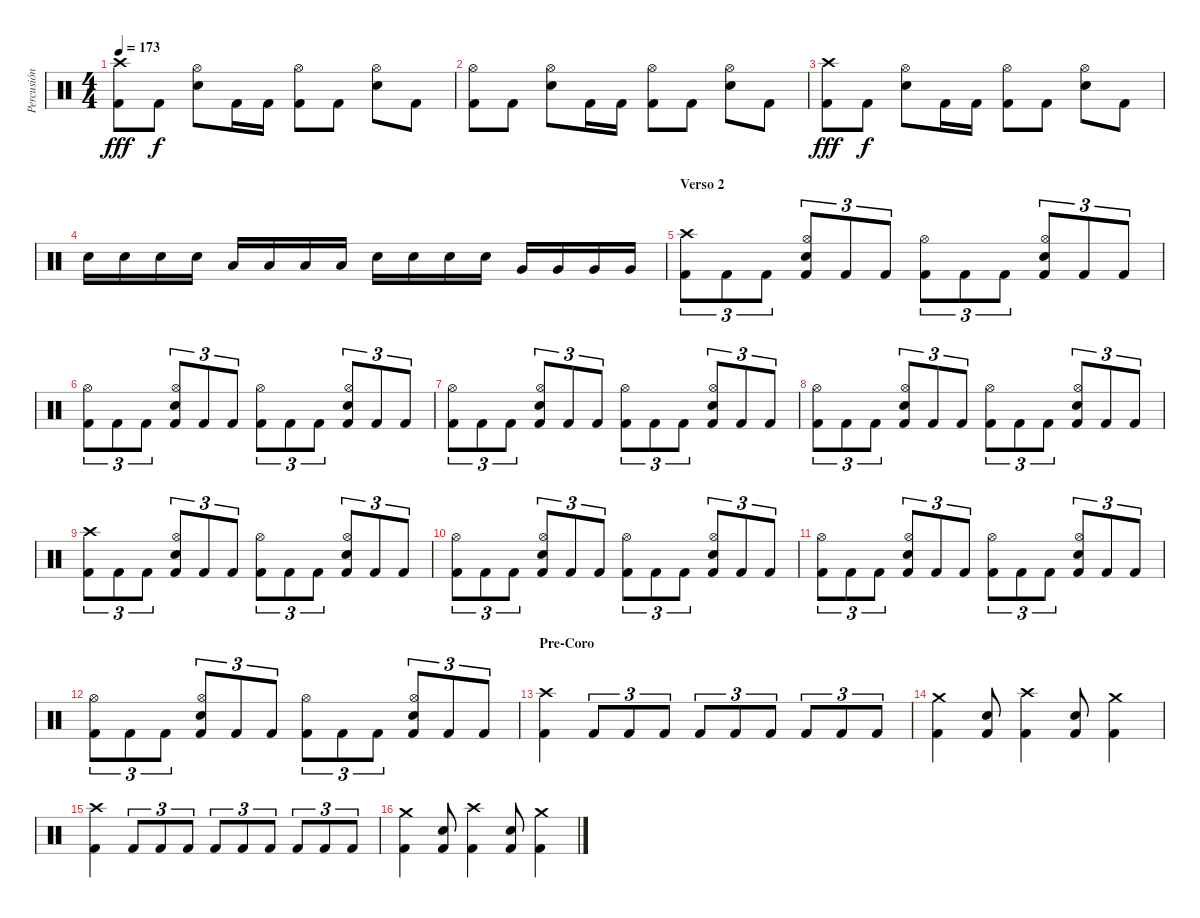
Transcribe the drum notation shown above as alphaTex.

\track ("Percusión" "Percusión") {instrument percussion}
\staff {score}
\articulation defaults
\ts (4 4)
\tempo 173
\clef neutral
\ks c
("Crash high (hit)" "Kick (hit) 2").8{dy fff} "Kick (hit) 2".8{dy f} ("Hi-Hat (open)" "Snare (hit) 2").8 "Kick (hit) 2".16 "Kick (hit) 2".16 ("Hi-Hat (open)" "Kick (hit) 2").8 "Kick (hit) 2".8 ("Hi-Hat (open)" "Snare (hit) 2").8 "Kick (hit) 2".8 |
("Hi-Hat (open)" "Kick (hit) 2").8 "Kick (hit) 2".8 ("Hi-Hat (open)" "Snare (hit) 2").8 "Kick (hit) 2".16 "Kick (hit) 2".16 ("Hi-Hat (open)" "Kick (hit) 2").8 "Kick (hit) 2".8 ("Hi-Hat (open)" "Snare (hit) 2").8 "Kick (hit) 2".8 |
("Crash high (hit)" "Kick (hit) 2").8{dy fff} "Kick (hit) 2".8{dy f} ("Hi-Hat (open)" "Snare (hit) 2").8 "Kick (hit) 2".16 "Kick (hit) 2".16 ("Hi-Hat (open)" "Kick (hit) 2").8 "Kick (hit) 2".8 ("Hi-Hat (open)" "Snare (hit) 2").8 "Kick (hit) 2".8 |
"Snare (hit) 2".16 "Snare (hit) 2".16 "Snare (hit) 2".16 "Snare (hit) 2".16 "Low Tom (hit)".16 "Low Tom (hit)".16 "Low Tom (hit)".16 "Low Tom (hit)".16 "Snare (hit) 2".16 "Snare (hit) 2".16 "Snare (hit) 2".16 "Snare (hit) 2".16 "Very Low Tom (hit)".16 "Very Low Tom (hit)".16 "Very Low Tom (hit)".16 "Very Low Tom (hit)".16 |
\section ("" "Verso 2")
("Crash high (hit)" "Kick (hit) 2").8{tu (3 2)} "Kick (hit) 2".8{tu (3 2)} "Kick (hit) 2".8{tu (3 2)} ("Hi-Hat (open)" "Snare (hit) 2" "Kick (hit) 2").8{tu (3 2)} "Kick (hit) 2".8{tu (3 2)} "Kick (hit) 2".8{tu (3 2)} ("Hi-Hat (open)" "Kick (hit) 2").8{tu (3 2)} "Kick (hit) 2".8{tu (3 2)} "Kick (hit) 2".8{tu (3 2)} ("Hi-Hat (open)" "Snare (hit) 2" "Kick (hit) 2").8{tu (3 2)} "Kick (hit) 2".8{tu (3 2)} "Kick (hit) 2".8{tu (3 2)} |
("Hi-Hat (open)" "Kick (hit) 2").8{tu (3 2)} "Kick (hit) 2".8{tu (3 2)} "Kick (hit) 2".8{tu (3 2)} ("Hi-Hat (open)" "Snare (hit) 2" "Kick (hit) 2").8{tu (3 2)} "Kick (hit) 2".8{tu (3 2)} "Kick (hit) 2".8{tu (3 2)} ("Hi-Hat (open)" "Kick (hit) 2").8{tu (3 2)} "Kick (hit) 2".8{tu (3 2)} "Kick (hit) 2".8{tu (3 2)} ("Hi-Hat (open)" "Snare (hit) 2" "Kick (hit) 2").8{tu (3 2)} "Kick (hit) 2".8{tu (3 2)} "Kick (hit) 2".8{tu (3 2)} |
("Hi-Hat (open)" "Kick (hit) 2").8{tu (3 2)} "Kick (hit) 2".8{tu (3 2)} "Kick (hit) 2".8{tu (3 2)} ("Hi-Hat (open)" "Snare (hit) 2" "Kick (hit) 2").8{tu (3 2)} "Kick (hit) 2".8{tu (3 2)} "Kick (hit) 2".8{tu (3 2)} ("Hi-Hat (open)" "Kick (hit) 2").8{tu (3 2)} "Kick (hit) 2".8{tu (3 2)} "Kick (hit) 2".8{tu (3 2)} ("Hi-Hat (open)" "Snare (hit) 2" "Kick (hit) 2").8{tu (3 2)} "Kick (hit) 2".8{tu (3 2)} "Kick (hit) 2".8{tu (3 2)} |
("Hi-Hat (open)" "Kick (hit) 2").8{tu (3 2)} "Kick (hit) 2".8{tu (3 2)} "Kick (hit) 2".8{tu (3 2)} ("Hi-Hat (open)" "Snare (hit) 2" "Kick (hit) 2").8{tu (3 2)} "Kick (hit) 2".8{tu (3 2)} "Kick (hit) 2".8{tu (3 2)} ("Hi-Hat (open)" "Kick (hit) 2").8{tu (3 2)} "Kick (hit) 2".8{tu (3 2)} "Kick (hit) 2".8{tu (3 2)} ("Hi-Hat (open)" "Snare (hit) 2" "Kick (hit) 2").8{tu (3 2)} "Kick (hit) 2".8{tu (3 2)} "Kick (hit) 2".8{tu (3 2)} |
("Crash high (hit)" "Kick (hit) 2").8{tu (3 2)} "Kick (hit) 2".8{tu (3 2)} "Kick (hit) 2".8{tu (3 2)} ("Hi-Hat (open)" "Snare (hit) 2" "Kick (hit) 2").8{tu (3 2)} "Kick (hit) 2".8{tu (3 2)} "Kick (hit) 2".8{tu (3 2)} ("Hi-Hat (open)" "Kick (hit) 2").8{tu (3 2)} "Kick (hit) 2".8{tu (3 2)} "Kick (hit) 2".8{tu (3 2)} ("Hi-Hat (open)" "Snare (hit) 2" "Kick (hit) 2").8{tu (3 2)} "Kick (hit) 2".8{tu (3 2)} "Kick (hit) 2".8{tu (3 2)} |
("Hi-Hat (open)" "Kick (hit) 2").8{tu (3 2)} "Kick (hit) 2".8{tu (3 2)} "Kick (hit) 2".8{tu (3 2)} ("Hi-Hat (open)" "Snare (hit) 2" "Kick (hit) 2").8{tu (3 2)} "Kick (hit) 2".8{tu (3 2)} "Kick (hit) 2".8{tu (3 2)} ("Hi-Hat (open)" "Kick (hit) 2").8{tu (3 2)} "Kick (hit) 2".8{tu (3 2)} "Kick (hit) 2".8{tu (3 2)} ("Hi-Hat (open)" "Snare (hit) 2" "Kick (hit) 2").8{tu (3 2)} "Kick (hit) 2".8{tu (3 2)} "Kick (hit) 2".8{tu (3 2)} |
("Hi-Hat (open)" "Kick (hit) 2").8{tu (3 2)} "Kick (hit) 2".8{tu (3 2)} "Kick (hit) 2".8{tu (3 2)} ("Hi-Hat (open)" "Snare (hit) 2" "Kick (hit) 2").8{tu (3 2)} "Kick (hit) 2".8{tu (3 2)} "Kick (hit) 2".8{tu (3 2)} ("Hi-Hat (open)" "Kick (hit) 2").8{tu (3 2)} "Kick (hit) 2".8{tu (3 2)} "Kick (hit) 2".8{tu (3 2)} ("Hi-Hat (open)" "Snare (hit) 2" "Kick (hit) 2").8{tu (3 2)} "Kick (hit) 2".8{tu (3 2)} "Kick (hit) 2".8{tu (3 2)} |
("Hi-Hat (open)" "Kick (hit) 2").8{tu (3 2)} "Kick (hit) 2".8{tu (3 2)} "Kick (hit) 2".8{tu (3 2)} ("Hi-Hat (open)" "Snare (hit) 2" "Kick (hit) 2").8{tu (3 2)} "Kick (hit) 2".8{tu (3 2)} "Kick (hit) 2".8{tu (3 2)} ("Hi-Hat (open)" "Kick (hit) 2").8{tu (3 2)} "Kick (hit) 2".8{tu (3 2)} "Kick (hit) 2".8{tu (3 2)} ("Hi-Hat (open)" "Snare (hit) 2" "Kick (hit) 2").8{tu (3 2)} "Kick (hit) 2".8{tu (3 2)} "Kick (hit) 2".8{tu (3 2)} |
\section ("" "Pre-Coro")
("Crash high (hit)" "Kick (hit) 2").4 "Kick (hit) 2".8{tu (3 2)} "Kick (hit) 2".8{tu (3 2)} "Kick (hit) 2".8{tu (3 2)} "Kick (hit) 2".8{tu (3 2)} "Kick (hit) 2".8{tu (3 2)} "Kick (hit) 2".8{tu (3 2)} "Kick (hit) 2".8{tu (3 2)} "Kick (hit) 2".8{tu (3 2)} "Kick (hit) 2".8{tu (3 2)} |
("Crash medium (hit)" "Kick (hit) 2").4 ("Snare (hit) 2" "Kick (hit) 2").8 ("Crash high (hit)" "Kick (hit) 2").4 ("Snare (hit) 2" "Kick (hit) 2").8 ("Crash medium (hit)" "Kick (hit) 2").4 |
("Crash high (hit)" "Kick (hit) 2").4 "Kick (hit) 2".8{tu (3 2)} "Kick (hit) 2".8{tu (3 2)} "Kick (hit) 2".8{tu (3 2)} "Kick (hit) 2".8{tu (3 2)} "Kick (hit) 2".8{tu (3 2)} "Kick (hit) 2".8{tu (3 2)} "Kick (hit) 2".8{tu (3 2)} "Kick (hit) 2".8{tu (3 2)} "Kick (hit) 2".8{tu (3 2)} |
("Crash medium (hit)" "Kick (hit) 2").4 ("Snare (hit) 2" "Kick (hit) 2").8 ("Crash high (hit)" "Kick (hit) 2").4 ("Snare (hit) 2" "Kick (hit) 2").8 ("Crash medium (hit)" "Kick (hit) 2").4
